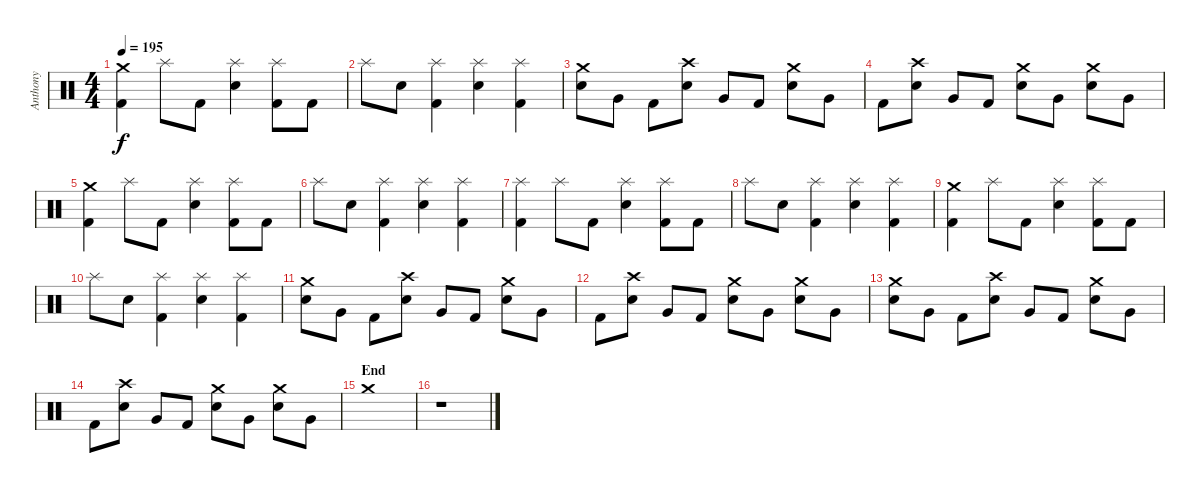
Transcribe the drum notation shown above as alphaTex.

\track ("Anthony" "Anthony") {instrument percussion}
\staff {score}
\articulation defaults
\ts (4 4)
\tempo 195
\clef neutral
\ks c
("Crash medium (hit)" "Kick (hit) 2").4{dy f} "Splash (hit)".8 "Kick (hit) 2".8 ("Splash (hit)" "Electric Snare (hit)").4 ("Splash (hit)" "Kick (hit) 2").8 "Kick (hit) 2".8 |
"Splash (hit)".8 "Electric Snare (hit)".8 ("Splash (hit)" "Kick (hit) 2").4 ("Splash (hit)" "Electric Snare (hit)").4 ("Splash (hit)" "Kick (hit) 2").4 |
("Crash medium (hit)" "Electric Snare (hit)").8 "Very Low Tom (hit)".8 "Kick (hit) 2".8 ("Crash high (hit)" "Electric Snare (hit)").8 "Very Low Tom (hit)".8 "Kick (hit) 2".8 ("Crash medium (hit)" "Electric Snare (hit)").8 "Very Low Tom (hit)".8 |
"Kick (hit) 2".8 ("Crash high (hit)" "Electric Snare (hit)").8 "Very Low Tom (hit)".8 "Kick (hit) 2".8 ("Crash medium (hit)" "Electric Snare (hit)").8 "Very Low Tom (hit)".8 ("Crash medium (hit)" "Electric Snare (hit)").8 "Very Low Tom (hit)".8 |
("Crash medium (hit)" "Kick (hit) 2").4 "Splash (hit)".8 "Kick (hit) 2".8 ("Splash (hit)" "Electric Snare (hit)").4 ("Splash (hit)" "Kick (hit) 2").8 "Kick (hit) 2".8 |
"Splash (hit)".8 "Electric Snare (hit)".8 ("Splash (hit)" "Kick (hit) 2").4 ("Splash (hit)" "Electric Snare (hit)").4 ("Splash (hit)" "Kick (hit) 2").4 |
("Splash (hit)" "Kick (hit) 2").4 "Splash (hit)".8 "Kick (hit) 2".8 ("Splash (hit)" "Electric Snare (hit)").4 ("Splash (hit)" "Kick (hit) 2").8 "Kick (hit) 2".8 |
"Splash (hit)".8 "Electric Snare (hit)".8 ("Splash (hit)" "Kick (hit) 2").4 ("Splash (hit)" "Electric Snare (hit)").4 ("Splash (hit)" "Kick (hit) 2").4 |
("Crash medium (hit)" "Kick (hit) 2").4 "Splash (hit)".8 "Kick (hit) 2".8 ("Splash (hit)" "Electric Snare (hit)").4 ("Splash (hit)" "Kick (hit) 2").8 "Kick (hit) 2".8 |
"Splash (hit)".8 "Electric Snare (hit)".8 ("Splash (hit)" "Kick (hit) 2").4 ("Splash (hit)" "Electric Snare (hit)").4 ("Splash (hit)" "Kick (hit) 2").4 |
("Crash medium (hit)" "Electric Snare (hit)").8 "Very Low Tom (hit)".8 "Kick (hit) 2".8 ("Crash high (hit)" "Electric Snare (hit)").8 "Very Low Tom (hit)".8 "Kick (hit) 2".8 ("Crash medium (hit)" "Electric Snare (hit)").8 "Very Low Tom (hit)".8 |
"Kick (hit) 2".8 ("Crash high (hit)" "Electric Snare (hit)").8 "Very Low Tom (hit)".8 "Kick (hit) 2".8 ("Crash medium (hit)" "Electric Snare (hit)").8 "Very Low Tom (hit)".8 ("Crash medium (hit)" "Electric Snare (hit)").8 "Very Low Tom (hit)".8 |
("Crash medium (hit)" "Electric Snare (hit)").8 "Very Low Tom (hit)".8 "Kick (hit) 2".8 ("Crash high (hit)" "Electric Snare (hit)").8 "Very Low Tom (hit)".8 "Kick (hit) 2".8 ("Crash medium (hit)" "Electric Snare (hit)").8 "Very Low Tom (hit)".8 |
"Kick (hit) 2".8 ("Crash high (hit)" "Electric Snare (hit)").8 "Very Low Tom (hit)".8 "Kick (hit) 2".8 ("Crash medium (hit)" "Electric Snare (hit)").8 "Very Low Tom (hit)".8 ("Crash medium (hit)" "Electric Snare (hit)").8 "Very Low Tom (hit)".8 |
\section ("" "End")
"Crash medium (hit)".1 |
r.1
